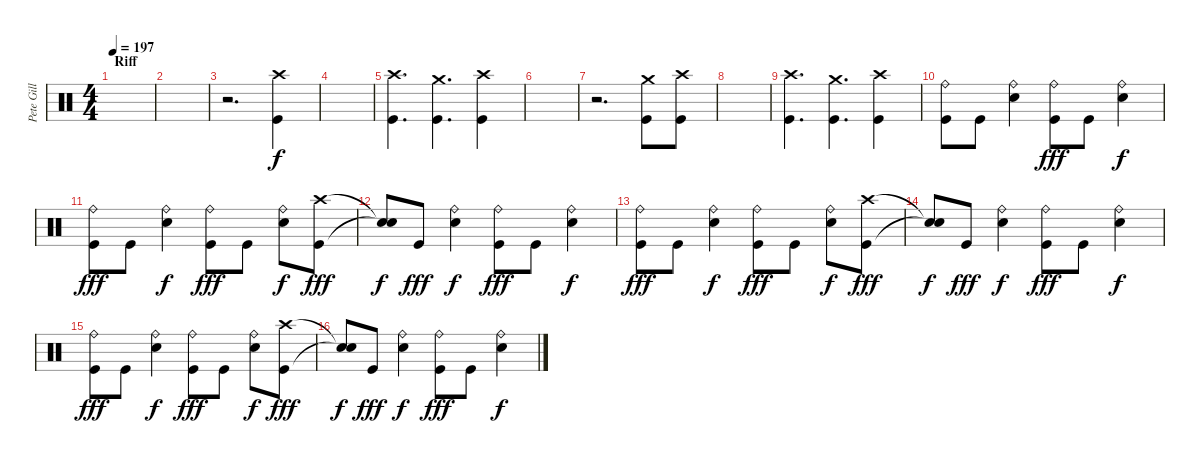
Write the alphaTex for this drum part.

\track ("Pete Gill" "Pete Gill") {instrument percussion}
\staff {score}
\articulation defaults
\ts (4 4)
\section ("" "Riff")
\tempo 197
\clef neutral
\ks c
|
|
r.2{d} ("Crash high (hit)" "Kick (hit)").4 |
|
("Crash high (hit)" "Kick (hit)").4{d} ("Crash medium (hit)" "Kick (hit)").4{d} ("Crash high (hit)" "Kick (hit)").4 |
|
r.2{d} ("Crash medium (hit)" "Kick (hit)").8 ("Crash high (hit)" "Kick (hit)").8 |
|
("Crash high (hit)" "Kick (hit)").4{d} ("Crash medium (hit)" "Kick (hit)").4{d} ("Crash high (hit)" "Kick (hit)").4 |
("Ride (bell)" "Kick (hit)").8 "Kick (hit)".8 ("Ride (bell)" "Electric Snare (hit)").4{dy f} ("Ride (bell)" "Kick (hit)").8{dy fff} "Kick (hit)".8 ("Ride (bell)" "Electric Snare (hit)").4{dy f} |
("Ride (bell)" "Kick (hit)").8{dy fff} "Kick (hit)".8 ("Ride (bell)" "Electric Snare (hit)").4{dy f} ("Ride (bell)" "Kick (hit)").8{dy fff} "Kick (hit)".8 ("Ride (bell)" "Electric Snare (hit)").8{dy f} ("Crash high (hit)" "Kick (hit)").8{dy fff} |
("Snare (hit)"{t} "Snare (hit)"{t}).8{dy f} "Kick (hit)".8{dy fff} ("Ride (bell)" "Electric Snare (hit)").4{dy f} ("Ride (bell)" "Kick (hit)").8{dy fff} "Kick (hit)".8 ("Ride (bell)" "Electric Snare (hit)").4{dy f} |
("Ride (bell)" "Kick (hit)").8{dy fff} "Kick (hit)".8 ("Ride (bell)" "Electric Snare (hit)").4{dy f} ("Ride (bell)" "Kick (hit)").8{dy fff} "Kick (hit)".8 ("Ride (bell)" "Electric Snare (hit)").8{dy f} ("Crash high (hit)" "Kick (hit)").8{dy fff} |
("Snare (hit)"{t} "Snare (hit)"{t}).8{dy f} "Kick (hit)".8{dy fff} ("Ride (bell)" "Electric Snare (hit)").4{dy f} ("Ride (bell)" "Kick (hit)").8{dy fff} "Kick (hit)".8 ("Ride (bell)" "Electric Snare (hit)").4{dy f} |
("Ride (bell)" "Kick (hit)").8{dy fff} "Kick (hit)".8 ("Ride (bell)" "Electric Snare (hit)").4{dy f} ("Ride (bell)" "Kick (hit)").8{dy fff} "Kick (hit)".8 ("Ride (bell)" "Electric Snare (hit)").8{dy f} ("Crash high (hit)" "Kick (hit)").8{dy fff} |
("Snare (hit)"{t} "Snare (hit)"{t}).8{dy f} "Kick (hit)".8{dy fff} ("Ride (bell)" "Electric Snare (hit)").4{dy f} ("Ride (bell)" "Kick (hit)").8{dy fff} "Kick (hit)".8 ("Ride (bell)" "Electric Snare (hit)").4{dy f}
